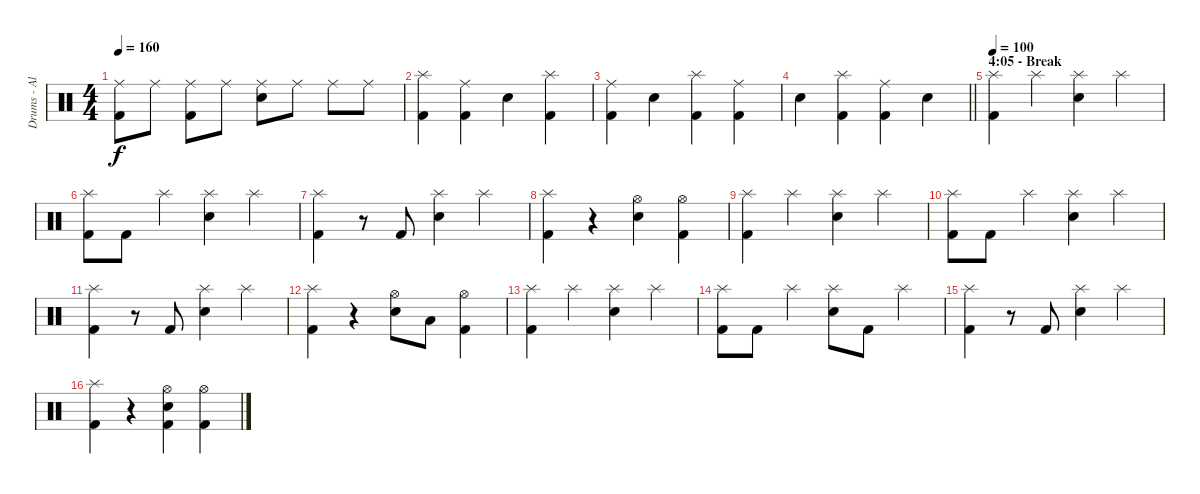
\track ("Drums - Alex Wank" "Drums - Al") {instrument percussion}
\staff {score}
\articulation defaults
\ts (4 4)
\tempo 160
\clef neutral
\ks c
("Ride (middle)" "Kick (hit) 2").8{dy f} "Ride (middle)".8 ("Ride (middle)" "Kick (hit) 2").8 "Ride (middle)".8 ("Ride (middle)" "Electric Snare (hit)").8 "Ride (middle)".8 "Ride (middle)".8 "Ride (middle)".8 |
("Splash (hit)" "Kick (hit) 2").4 ("Ride (middle)" "Kick (hit) 2").4 "Electric Snare (hit)".4 ("Splash (hit)" "Kick (hit) 2").4 |
("Ride (middle)" "Kick (hit) 2").4 "Electric Snare (hit)".4 ("Splash (hit)" "Kick (hit) 2").4 ("Ride (middle)" "Kick (hit) 2").4 |
\barLineRight lightlight "Electric Snare (hit)".4
("Splash (hit)" "Kick (hit) 2").4 ("Ride (middle)" "Kick (hit) 2").4 "Electric Snare (hit)".4 |
\section ("" "4:05 - Break")
\tempo 100
("Splash (hit)" "Kick (hit) 2").4 "Splash (hit)".4 ("Splash (hit)" "Electric Snare (hit)").4 "Splash (hit)".4 |
("Splash (hit)" "Kick (hit) 2").8 "Kick (hit) 2".8 "Splash (hit)".4 ("Splash (hit)" "Electric Snare (hit)").4 "Splash (hit)".4 |
("Splash (hit)" "Kick (hit) 2").4 r.8 "Kick (hit) 2".8 ("Splash (hit)" "Electric Snare (hit)").4 "Splash (hit)".4 |
("Splash (hit)" "Kick (hit) 2").4 r.4 ("Hi-Hat (open)" "Electric Snare (hit)").4 ("Hi-Hat (open)" "Kick (hit) 2").4 |
("Splash (hit)" "Kick (hit) 2").4 "Splash (hit)".4 ("Splash (hit)" "Electric Snare (hit)").4 "Splash (hit)".4 |
("Splash (hit)" "Kick (hit) 2").8 "Kick (hit) 2".8 "Splash (hit)".4 ("Splash (hit)" "Electric Snare (hit)").4 "Splash (hit)".4 |
("Splash (hit)" "Kick (hit) 2").4 r.8 "Kick (hit) 2".8 ("Splash (hit)" "Electric Snare (hit)").4 "Splash (hit)".4 |
("Splash (hit)" "Kick (hit) 2").4 r.4 ("Hi-Hat (open)" "Electric Snare (hit)").8 "Low Floor Tom (hit)".8 ("Hi-Hat (open)" "Kick (hit) 2").4 |
("Splash (hit)" "Kick (hit) 2").4 "Splash (hit)".4 ("Splash (hit)" "Electric Snare (hit)").4 "Splash (hit)".4 |
("Splash (hit)" "Kick (hit) 2").8 "Kick (hit) 2".8 "Splash (hit)".4 ("Splash (hit)" "Electric Snare (hit)").8 "Kick (hit) 2".8 "Splash (hit)".4 |
("Splash (hit)" "Kick (hit) 2").4 r.8 "Kick (hit) 2".8 ("Splash (hit)" "Electric Snare (hit)").4 "Splash (hit)".4 |
("Splash (hit)" "Kick (hit) 2").4 r.4 ("Hi-Hat (open)" "Electric Snare (hit)" "Kick (hit) 2").4 ("Hi-Hat (open)" "Kick (hit) 2").4
